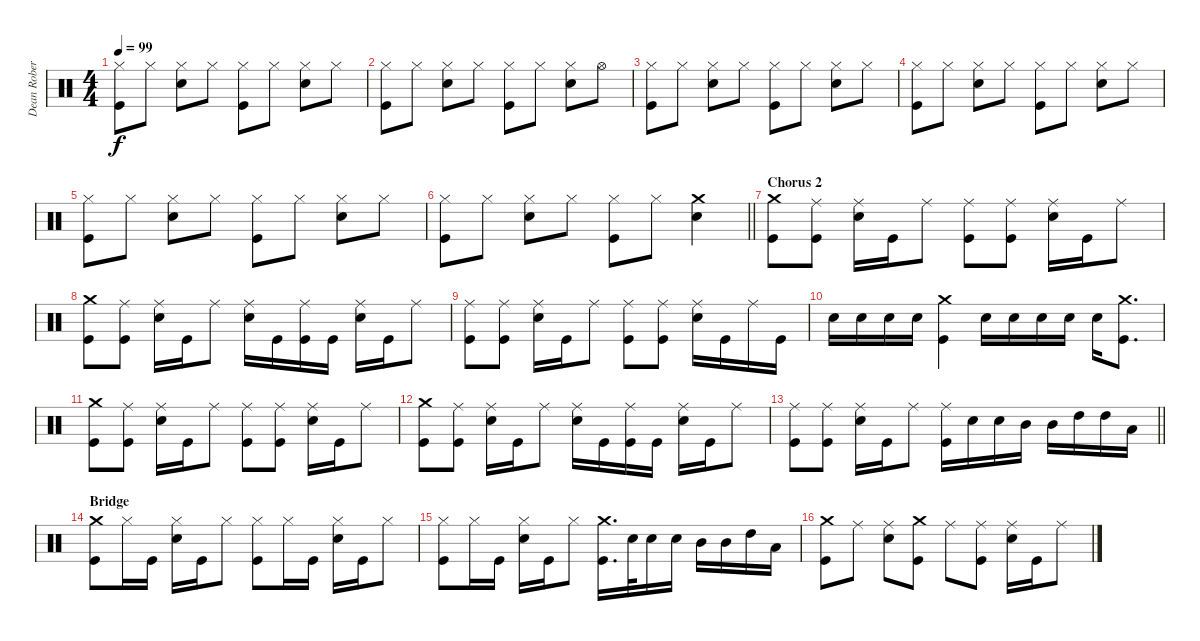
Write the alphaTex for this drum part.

\track ("Dean Roberts" "Dean Rober") {instrument percussion}
\staff {score}
\articulation defaults
\ts (4 4)
\tempo 99
\clef neutral
\ks c
("Hi-Hat (closed)" "Kick (hit)").8{dy f} "Hi-Hat (closed)".8 ("Hi-Hat (closed)" "Electric Snare (hit)").8 "Hi-Hat (closed)".8 ("Hi-Hat (closed)" "Kick (hit)").8 "Hi-Hat (closed)".8 ("Hi-Hat (closed)" "Electric Snare (hit)").8 "Hi-Hat (closed)".8 |
("Hi-Hat (closed)" "Kick (hit)").8 "Hi-Hat (closed)".8 ("Hi-Hat (closed)" "Electric Snare (hit)").8 "Hi-Hat (closed)".8 ("Hi-Hat (closed)" "Kick (hit)").8 "Hi-Hat (closed)".8 ("Hi-Hat (closed)" "Electric Snare (hit)").8 "Hi-Hat (open)".8 |
("Hi-Hat (closed)" "Kick (hit)").8 "Hi-Hat (closed)".8 ("Hi-Hat (closed)" "Electric Snare (hit)").8 "Hi-Hat (closed)".8 ("Hi-Hat (closed)" "Kick (hit)").8 "Hi-Hat (closed)".8 ("Hi-Hat (closed)" "Electric Snare (hit)").8 "Hi-Hat (closed)".8 |
("Hi-Hat (closed)" "Kick (hit)").8 "Hi-Hat (closed)".8 ("Hi-Hat (closed)" "Electric Snare (hit)").8 "Hi-Hat (closed)".8 ("Hi-Hat (closed)" "Kick (hit)").8 "Hi-Hat (closed)".8 ("Hi-Hat (closed)" "Electric Snare (hit)").8 "Hi-Hat (closed)".8 |
("Hi-Hat (closed)" "Kick (hit)").8 "Hi-Hat (closed)".8 ("Hi-Hat (closed)" "Electric Snare (hit)").8 "Hi-Hat (closed)".8 ("Hi-Hat (closed)" "Kick (hit)").8 "Hi-Hat (closed)".8 ("Hi-Hat (closed)" "Electric Snare (hit)").8 "Hi-Hat (closed)".8 |
\barLineRight lightlight
("Hi-Hat (closed)" "Kick (hit)").8 "Hi-Hat (closed)".8 ("Hi-Hat (closed)" "Electric Snare (hit)").8 "Hi-Hat (closed)".8 ("Hi-Hat (closed)" "Kick (hit)").8 "Hi-Hat (closed)".8 ("Crash medium (hit)" "Electric Snare (hit)").4 |
\section ("" "Chorus 2")
("Crash medium (hit)" "Kick (hit)").8 ("Ride (middle)" "Kick (hit)").8 ("Ride (middle)" "Electric Snare (hit)").16 "Kick (hit)".16 "Ride (middle)".8 ("Ride (middle)" "Kick (hit)").8 ("Ride (middle)" "Kick (hit)").8 ("Ride (middle)" "Electric Snare (hit)").16 "Kick (hit)".16 "Ride (middle)".8 |
("Crash medium (hit)" "Kick (hit)").8 ("Ride (middle)" "Kick (hit)").8 ("Ride (middle)" "Electric Snare (hit)").16 "Kick (hit)".16 "Ride (middle)".8 ("Ride (middle)" "Electric Snare (hit)").16 "Kick (hit)".16 ("Ride (middle)" "Kick (hit)").16 "Kick (hit)".16 ("Ride (middle)" "Electric Snare (hit)").16 "Kick (hit)".16 "Ride (middle)".8 |
("Ride (middle)" "Kick (hit)").8 ("Ride (middle)" "Kick (hit)").8 ("Ride (middle)" "Electric Snare (hit)").16 "Kick (hit)".16 "Ride (middle)".8 ("Ride (middle)" "Kick (hit)").8 ("Ride (middle)" "Kick (hit)").8 ("Ride (middle)" "Electric Snare (hit)").16 "Kick (hit)".16 "Ride (middle)".16 "Kick (hit)".16 |
"Electric Snare (hit)".16 "Electric Snare (hit)".16 "Electric Snare (hit)".16 "Electric Snare (hit)".16 ("Crash medium (hit)" "Kick (hit)").4 "Electric Snare (hit)".16 "Electric Snare (hit)".16 "Electric Snare (hit)".16 "Electric Snare (hit)".16 "Electric Snare (hit)".16 ("Crash medium (hit)" "Kick (hit)").8{d} |
("Crash medium (hit)" "Kick (hit)").8 ("Ride (middle)" "Kick (hit)").8 ("Ride (middle)" "Electric Snare (hit)").16 "Kick (hit)".16 "Ride (middle)".8 ("Ride (middle)" "Kick (hit)").8 ("Ride (middle)" "Kick (hit)").8 ("Ride (middle)" "Electric Snare (hit)").16 "Kick (hit)".16 "Ride (middle)".8 |
("Crash medium (hit)" "Kick (hit)").8 ("Ride (middle)" "Kick (hit)").8 ("Ride (middle)" "Electric Snare (hit)").16 "Kick (hit)".16 "Ride (middle)".8 ("Ride (middle)" "Electric Snare (hit)").16 "Kick (hit)".16 ("Ride (middle)" "Kick (hit)").16 "Kick (hit)".16 ("Ride (middle)" "Electric Snare (hit)").16 "Kick (hit)".16 "Ride (middle)".8 |
\barLineRight lightlight
("Ride (middle)" "Kick (hit)").8 ("Ride (middle)" "Kick (hit)").8 ("Ride (middle)" "Electric Snare (hit)").16 "Kick (hit)".16 "Ride (middle)".8 ("Ride (middle)" "Kick (hit)").16 "Electric Snare (hit)".16 "Electric Snare (hit)".16 "Mid Tom (hit)".16 "Mid Tom (hit)".16 "High Tom (hit)".16 "High Tom (hit)".16 "Low Floor Tom (hit)".16 |
\section ("" "Bridge")
("Crash medium (hit)" "Kick (hit)").8 "Hi-Hat (closed)".16 "Kick (hit)".16 ("Hi-Hat (closed)" "Electric Snare (hit)").16 "Kick (hit)".16 "Hi-Hat (closed)".8 ("Hi-Hat (closed)" "Kick (hit)").8 "Hi-Hat (closed)".16 "Kick (hit)".16 ("Hi-Hat (closed)" "Electric Snare (hit)").16 "Kick (hit)".16 "Hi-Hat (closed)".8 |
("Hi-Hat (closed)" "Kick (hit)").8 "Hi-Hat (closed)".16 "Kick (hit)".16 ("Hi-Hat (closed)" "Electric Snare (hit)").16 "Kick (hit)".16 "Hi-Hat (closed)".8 ("Crash medium (hit)" "Kick (hit)").16{d} "Electric Snare (hit)".32 "Electric Snare (hit)".16 "Electric Snare (hit)".16 "Mid Tom (hit)".16 "Mid Tom (hit)".16 "High Tom (hit)".16 "Low Floor Tom (hit)".16 |
("Crash medium (hit)" "Kick (hit)").8 "Ride (middle)".8 ("Ride (middle)" "Electric Snare (hit)").8 ("Crash medium (hit)" "Kick (hit)").8 "Ride (middle)".8 ("Ride (middle)" "Kick (hit)").8 ("Ride (middle)" "Electric Snare (hit)").16 "Kick (hit)".16 "Ride (middle)".8
